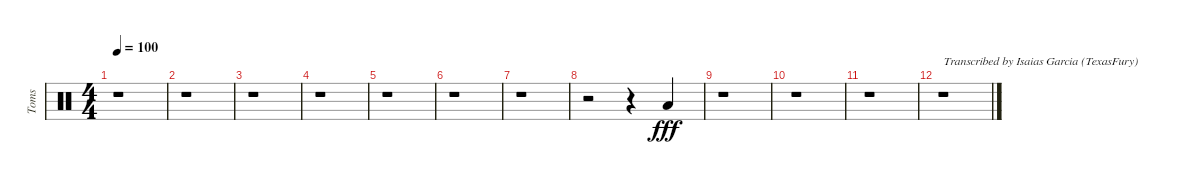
\track ("Toms" "Toms") {instrument percussion}
\staff {score}
\articulation defaults
\ts (4 4)
\tempo 100
\clef neutral
\ks aminor
r.1{dy fff} |
r.1 |
r.1 |
r.1 |
r.1 |
r.1 |
r.1 |
r.2 r.4 "Low Tom (hit)".4 |
r.1 |
r.1 |
r.1 |
r.1{txt "Transcribed by Isaias Garcia (TexasFury)"}
